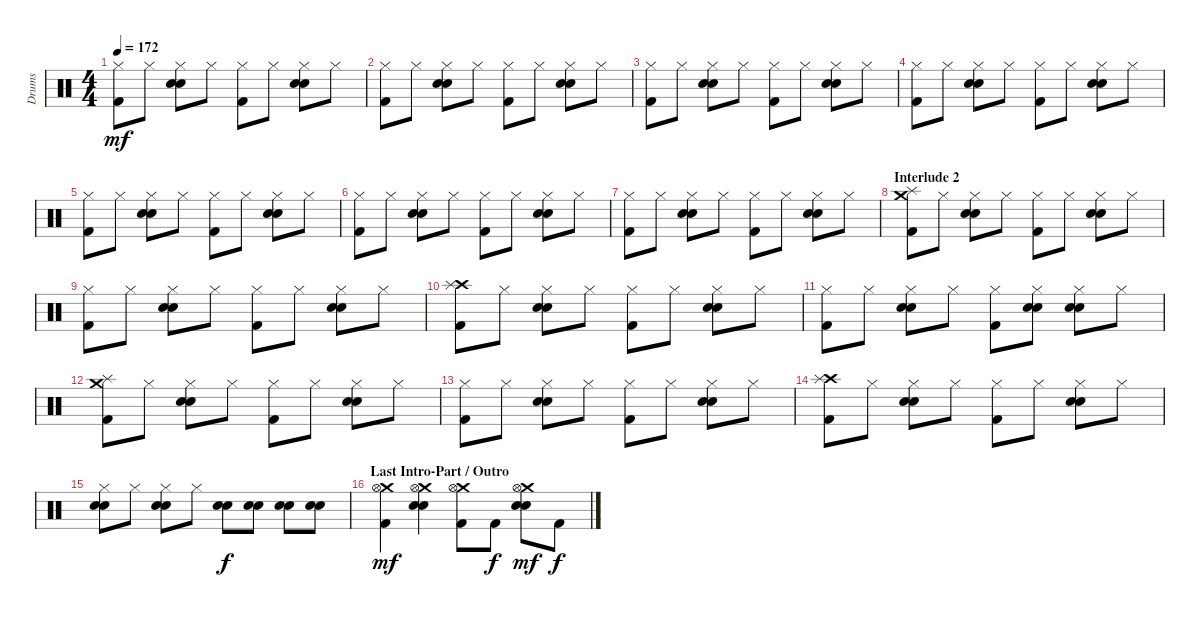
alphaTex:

\track ("Drums" "Drums") {instrument percussion}
\staff {score}
\articulation defaults
\ts (4 4)
\tempo 172
\clef neutral
\ks c
("Hi-Hat (closed)" "Kick (hit) 2").8{dy mf} "Hi-Hat (closed)".8 ("Hi-Hat (closed)" "Electric Snare (hit)" "Snare (hit) 2").8 "Hi-Hat (closed)".8 ("Hi-Hat (closed)" "Kick (hit) 2").8 "Hi-Hat (closed)".8 ("Hi-Hat (closed)" "Electric Snare (hit)" "Snare (hit) 2").8 "Hi-Hat (closed)".8 |
("Hi-Hat (closed)" "Kick (hit) 2").8 "Hi-Hat (closed)".8 ("Hi-Hat (closed)" "Electric Snare (hit)" "Snare (hit) 2").8 "Hi-Hat (closed)".8 ("Hi-Hat (closed)" "Kick (hit) 2").8 "Hi-Hat (closed)".8 ("Hi-Hat (closed)" "Electric Snare (hit)" "Snare (hit) 2").8 "Hi-Hat (closed)".8 |
("Hi-Hat (closed)" "Kick (hit) 2").8 "Hi-Hat (closed)".8 ("Hi-Hat (closed)" "Electric Snare (hit)" "Snare (hit) 2").8 "Hi-Hat (closed)".8 ("Hi-Hat (closed)" "Kick (hit) 2").8 "Hi-Hat (closed)".8 ("Hi-Hat (closed)" "Electric Snare (hit)" "Snare (hit) 2").8 "Hi-Hat (closed)".8 |
("Hi-Hat (closed)" "Kick (hit) 2").8 "Hi-Hat (closed)".8 ("Hi-Hat (closed)" "Electric Snare (hit)" "Snare (hit) 2").8 "Hi-Hat (closed)".8 ("Hi-Hat (closed)" "Kick (hit) 2").8 "Hi-Hat (closed)".8 ("Hi-Hat (closed)" "Electric Snare (hit)" "Snare (hit) 2").8 "Hi-Hat (closed)".8 |
("Hi-Hat (closed)" "Kick (hit) 2").8 "Hi-Hat (closed)".8 ("Hi-Hat (closed)" "Electric Snare (hit)" "Snare (hit) 2").8 "Hi-Hat (closed)".8 ("Hi-Hat (closed)" "Kick (hit) 2").8 "Hi-Hat (closed)".8 ("Hi-Hat (closed)" "Electric Snare (hit)" "Snare (hit) 2").8 "Hi-Hat (closed)".8 |
("Hi-Hat (closed)" "Kick (hit) 2").8 "Hi-Hat (closed)".8 ("Hi-Hat (closed)" "Electric Snare (hit)" "Snare (hit) 2").8 "Hi-Hat (closed)".8 ("Hi-Hat (closed)" "Kick (hit) 2").8 "Hi-Hat (closed)".8 ("Hi-Hat (closed)" "Electric Snare (hit)" "Snare (hit) 2").8 "Hi-Hat (closed)".8 |
("Hi-Hat (closed)" "Kick (hit) 2").8 "Hi-Hat (closed)".8 ("Hi-Hat (closed)" "Electric Snare (hit)" "Snare (hit) 2").8 "Hi-Hat (closed)".8 ("Hi-Hat (closed)" "Kick (hit) 2").8 "Hi-Hat (closed)".8 ("Hi-Hat (closed)" "Electric Snare (hit)" "Snare (hit) 2").8 "Hi-Hat (closed)".8 |
\section ("" "Interlude 2")
("Crash medium (hit)" "Splash (hit)" "Kick (hit) 2").8 "Hi-Hat (closed)".8 ("Hi-Hat (closed)" "Electric Snare (hit)" "Snare (hit) 2").8 "Hi-Hat (closed)".8 ("Hi-Hat (closed)" "Kick (hit) 2").8 "Hi-Hat (closed)".8 ("Hi-Hat (closed)" "Electric Snare (hit)" "Snare (hit) 2").8 "Hi-Hat (closed)".8 |
("Hi-Hat (closed)" "Kick (hit) 2").8 "Hi-Hat (closed)".8 ("Hi-Hat (closed)" "Electric Snare (hit)" "Snare (hit) 2").8 "Hi-Hat (closed)".8 ("Hi-Hat (closed)" "Kick (hit) 2").8 "Hi-Hat (closed)".8 ("Hi-Hat (closed)" "Electric Snare (hit)" "Snare (hit) 2").8 "Hi-Hat (closed)".8 |
("Crash high (hit)" "Splash (hit)" "Kick (hit) 2").8 "Hi-Hat (closed)".8 ("Hi-Hat (closed)" "Electric Snare (hit)" "Snare (hit) 2").8 "Hi-Hat (closed)".8 ("Hi-Hat (closed)" "Kick (hit) 2").8 "Hi-Hat (closed)".8 ("Hi-Hat (closed)" "Electric Snare (hit)" "Snare (hit) 2").8 "Hi-Hat (closed)".8 |
("Hi-Hat (closed)" "Kick (hit) 2").8 "Hi-Hat (closed)".8 ("Hi-Hat (closed)" "Electric Snare (hit)" "Snare (hit) 2").8 "Hi-Hat (closed)".8 ("Hi-Hat (closed)" "Kick (hit) 2").8 ("Hi-Hat (closed)" "Electric Snare (hit)" "Snare (hit) 2").8 ("Hi-Hat (closed)" "Electric Snare (hit)" "Snare (hit) 2").8 "Hi-Hat (closed)".8 |
("Crash medium (hit)" "Splash (hit)" "Kick (hit) 2").8 "Hi-Hat (closed)".8 ("Hi-Hat (closed)" "Electric Snare (hit)" "Snare (hit) 2").8 "Hi-Hat (closed)".8 ("Hi-Hat (closed)" "Kick (hit) 2").8 "Hi-Hat (closed)".8 ("Hi-Hat (closed)" "Electric Snare (hit)" "Snare (hit) 2").8 "Hi-Hat (closed)".8 |
("Hi-Hat (closed)" "Kick (hit) 2").8 "Hi-Hat (closed)".8 ("Hi-Hat (closed)" "Electric Snare (hit)" "Snare (hit) 2").8 "Hi-Hat (closed)".8 ("Hi-Hat (closed)" "Kick (hit) 2").8 "Hi-Hat (closed)".8 ("Hi-Hat (closed)" "Electric Snare (hit)" "Snare (hit) 2").8 "Hi-Hat (closed)".8 |
("Crash high (hit)" "Splash (hit)" "Kick (hit) 2").8 "Hi-Hat (closed)".8 ("Hi-Hat (closed)" "Electric Snare (hit)" "Snare (hit) 2").8 "Hi-Hat (closed)".8 ("Hi-Hat (closed)" "Kick (hit) 2").8 "Hi-Hat (closed)".8 ("Hi-Hat (closed)" "Electric Snare (hit)" "Snare (hit) 2").8 "Hi-Hat (closed)".8 |
("Hi-Hat (closed)" "Electric Snare (hit)" "Snare (hit) 2").8 "Hi-Hat (closed)".8 ("Hi-Hat (closed)" "Electric Snare (hit)" "Snare (hit) 2").8 "Hi-Hat (closed)".8 ("Electric Snare (hit)" "Snare (hit) 2").8{dy f} ("Electric Snare (hit)" "Snare (hit) 2").8 ("Electric Snare (hit)" "Snare (hit) 2").8 ("Electric Snare (hit)" "Snare (hit) 2").8 |
\section ("" "Last Intro-Part / Outro")
("Crash medium (hit)" "Hi-Hat (open)" "Kick (hit) 2").4{dy mf volume 12} ("Crash medium (hit)" "Hi-Hat (open)" "Electric Snare (hit)" "Snare (hit) 2").4 ("Crash medium (hit)" "Hi-Hat (open)" "Kick (hit) 2").8 "Kick (hit) 2".8{dy f} ("Crash medium (hit)" "Hi-Hat (open)" "Electric Snare (hit)" "Snare (hit) 2").8{dy mf} "Kick (hit) 2".8{dy f}
